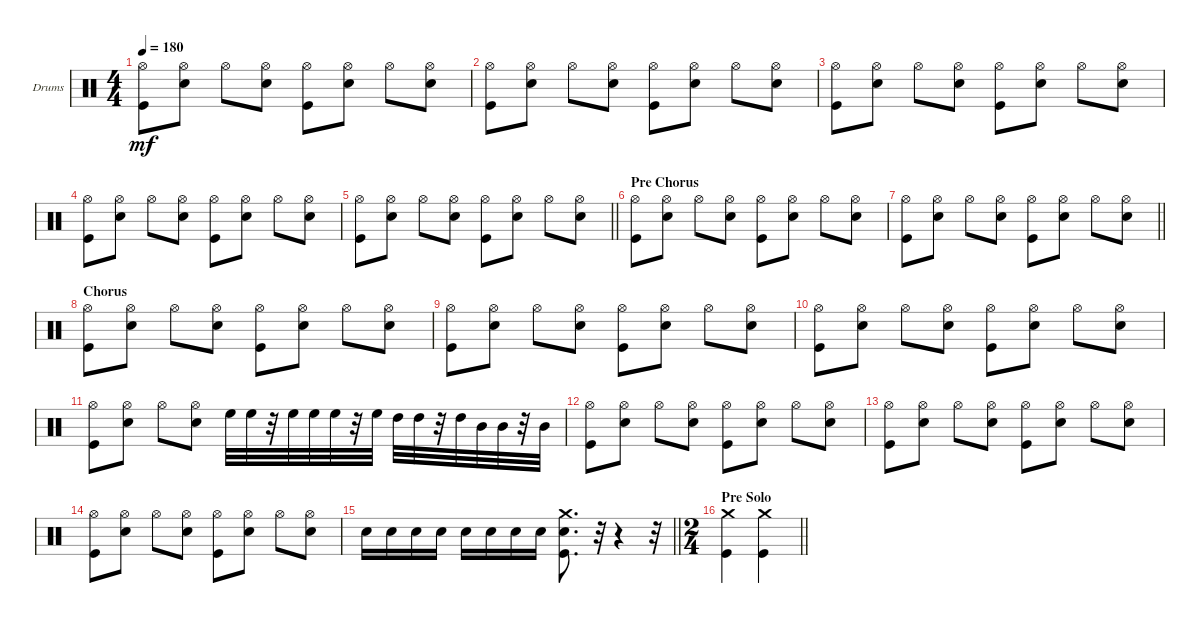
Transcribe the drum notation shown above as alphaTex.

\bracketExtendMode groupsimilarinstruments
\firstSystemTrackNameOrientation horizontal
\otherSystemsTrackNameOrientation horizontal
\track ("Drumkit" "Drums") {instrument percussion}
\staff {score}
\articulation defaults
\ts (4 4)
\tempo 180
\clef neutral
\ks c
("Kick (hit)" "Hi-Hat (open)").8{dy mf} ("Snare (hit) 2" "Hi-Hat (open)").8 "Hi-Hat (open)".8 ("Snare (hit) 2" "Hi-Hat (open)").8 ("Kick (hit)" "Hi-Hat (open)").8 ("Snare (hit) 2" "Hi-Hat (open)").8 "Hi-Hat (open)".8 ("Snare (hit) 2" "Hi-Hat (open)").8 |
("Kick (hit)" "Hi-Hat (open)").8 ("Snare (hit) 2" "Hi-Hat (open)").8 "Hi-Hat (open)".8 ("Snare (hit) 2" "Hi-Hat (open)").8 ("Kick (hit)" "Hi-Hat (open)").8 ("Snare (hit) 2" "Hi-Hat (open)").8 "Hi-Hat (open)".8 ("Snare (hit) 2" "Hi-Hat (open)").8 |
("Kick (hit)" "Hi-Hat (open)").8 ("Snare (hit) 2" "Hi-Hat (open)").8 "Hi-Hat (open)".8 ("Snare (hit) 2" "Hi-Hat (open)").8 ("Kick (hit)" "Hi-Hat (open)").8 ("Snare (hit) 2" "Hi-Hat (open)").8 "Hi-Hat (open)".8 ("Snare (hit) 2" "Hi-Hat (open)").8 |
("Kick (hit)" "Hi-Hat (open)").8 ("Snare (hit) 2" "Hi-Hat (open)").8 "Hi-Hat (open)".8 ("Snare (hit) 2" "Hi-Hat (open)").8 ("Kick (hit)" "Hi-Hat (open)").8 ("Snare (hit) 2" "Hi-Hat (open)").8 "Hi-Hat (open)".8 ("Snare (hit) 2" "Hi-Hat (open)").8 |
\barLineRight lightlight
("Kick (hit)" "Hi-Hat (open)").8 ("Snare (hit) 2" "Hi-Hat (open)").8 "Hi-Hat (open)".8 ("Snare (hit) 2" "Hi-Hat (open)").8 ("Kick (hit)" "Hi-Hat (open)").8 ("Snare (hit) 2" "Hi-Hat (open)").8 "Hi-Hat (open)".8 ("Snare (hit) 2" "Hi-Hat (open)").8 |
\section ("" "Pre Chorus")
("Kick (hit)" "Hi-Hat (open)").8 ("Snare (hit) 2" "Hi-Hat (open)").8 "Hi-Hat (open)".8 ("Snare (hit) 2" "Hi-Hat (open)").8 ("Kick (hit)" "Hi-Hat (open)").8 ("Snare (hit) 2" "Hi-Hat (open)").8 "Hi-Hat (open)".8 ("Snare (hit) 2" "Hi-Hat (open)").8 |
\barLineRight lightlight
("Kick (hit)" "Hi-Hat (open)").8 ("Snare (hit) 2" "Hi-Hat (open)").8 "Hi-Hat (open)".8 ("Snare (hit) 2" "Hi-Hat (open)").8 ("Kick (hit)" "Hi-Hat (open)").8 ("Snare (hit) 2" "Hi-Hat (open)").8 "Hi-Hat (open)".8 ("Snare (hit) 2" "Hi-Hat (open)").8 |
\section ("" "Chorus")
("Kick (hit)" "Hi-Hat (open)").8 ("Snare (hit) 2" "Hi-Hat (open)").8 "Hi-Hat (open)".8 ("Snare (hit) 2" "Hi-Hat (open)").8 ("Kick (hit)" "Hi-Hat (open)").8 ("Snare (hit) 2" "Hi-Hat (open)").8 "Hi-Hat (open)".8 ("Snare (hit) 2" "Hi-Hat (open)").8 |
("Kick (hit)" "Hi-Hat (open)").8 ("Snare (hit) 2" "Hi-Hat (open)").8 "Hi-Hat (open)".8 ("Snare (hit) 2" "Hi-Hat (open)").8 ("Kick (hit)" "Hi-Hat (open)").8 ("Snare (hit) 2" "Hi-Hat (open)").8 "Hi-Hat (open)".8 ("Snare (hit) 2" "Hi-Hat (open)").8 |
("Kick (hit)" "Hi-Hat (open)").8 ("Snare (hit) 2" "Hi-Hat (open)").8 "Hi-Hat (open)".8 ("Snare (hit) 2" "Hi-Hat (open)").8 ("Kick (hit)" "Hi-Hat (open)").8 ("Snare (hit) 2" "Hi-Hat (open)").8 "Hi-Hat (open)".8 ("Snare (hit) 2" "Hi-Hat (open)").8 |
("Kick (hit)" "Hi-Hat (open)").8 ("Snare (hit) 2" "Hi-Hat (open)").8 "Hi-Hat (open)".8 ("Snare (hit) 2" "Hi-Hat (open)").8 "High Floor Tom (hit)".32 "High Floor Tom (hit)".32 r.32 "High Floor Tom (hit)".32 "High Floor Tom (hit)".32 "High Floor Tom (hit)".32 r.32 "High Floor Tom (hit)".32 "High Tom (hit)".32 "High Tom (hit)".32 r.32 "High Tom (hit)".32 "Mid Tom (hit)".32 "Mid Tom (hit)".32 r.32 "Mid Tom (hit)".32 |
("Kick (hit)" "Hi-Hat (open)").8 ("Snare (hit) 2" "Hi-Hat (open)").8 "Hi-Hat (open)".8 ("Snare (hit) 2" "Hi-Hat (open)").8 ("Kick (hit)" "Hi-Hat (open)").8 ("Snare (hit) 2" "Hi-Hat (open)").8 "Hi-Hat (open)".8 ("Snare (hit) 2" "Hi-Hat (open)").8 |
("Kick (hit)" "Hi-Hat (open)").8 ("Snare (hit) 2" "Hi-Hat (open)").8 "Hi-Hat (open)".8 ("Snare (hit) 2" "Hi-Hat (open)").8 ("Kick (hit)" "Hi-Hat (open)").8 ("Snare (hit) 2" "Hi-Hat (open)").8 "Hi-Hat (open)".8 ("Snare (hit) 2" "Hi-Hat (open)").8 |
("Kick (hit)" "Hi-Hat (open)").8 ("Snare (hit) 2" "Hi-Hat (open)").8 "Hi-Hat (open)".8 ("Snare (hit) 2" "Hi-Hat (open)").8 ("Kick (hit)" "Hi-Hat (open)").8 ("Snare (hit) 2" "Hi-Hat (open)").8 "Hi-Hat (open)".8 ("Snare (hit) 2" "Hi-Hat (open)").8 |
\barLineRight lightlight "Snare (hit) 2".16 "Snare (hit) 2".16 "Snare (hit) 2".16 "Snare (hit) 2".16 "Snare (hit) 2".16 "Snare (hit) 2".16 "Snare (hit) 2".16 "Snare (hit) 2".16
("Kick (hit)" "Snare (hit) 2" "Crash medium (hit)").8{d} r.32 r.4 r.32 |
\ts (2 4)
\beaming (8 2 2)
\section ("" "Pre Solo")
\barLineRight lightlight
("Kick (hit)" "Crash medium (hit)").4 ("Kick (hit)" "Crash medium (hit)").4
